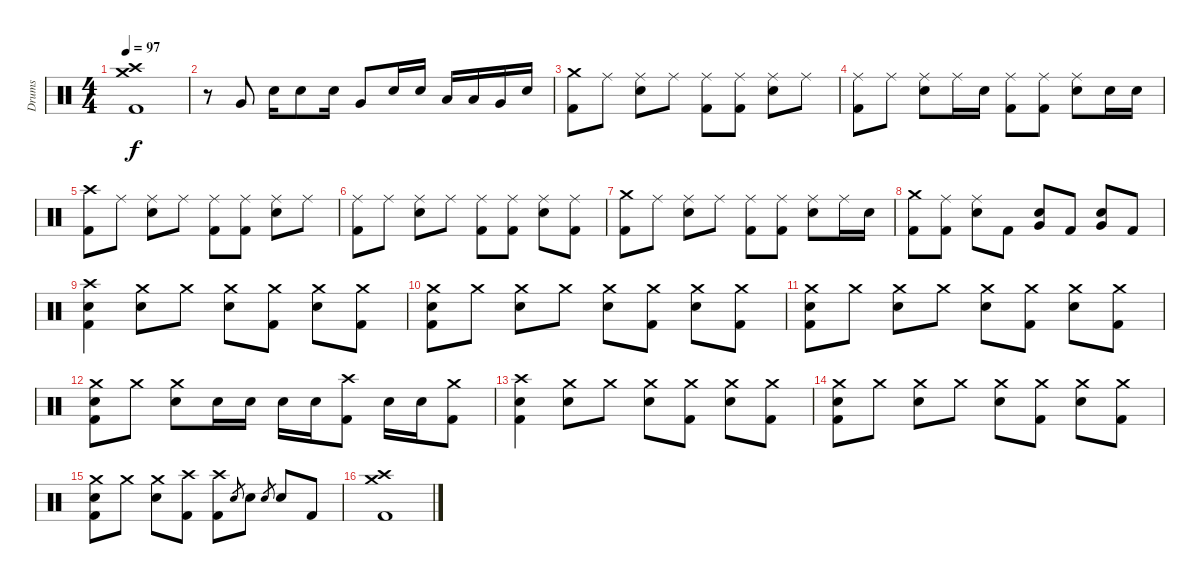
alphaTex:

\track ("Drums" "Drums") {instrument percussion}
\staff {score}
\articulation defaults
\ts (4 4)
\tempo 97
\clef neutral
\ks c
("Crash high (hit)" "Crash medium (hit)" "Kick (hit) 2").1{dy f} |
r.8 "Very Low Tom (hit)".8 "Snare (hit) 2".16 "Snare (hit) 2".8 "Snare (hit) 2".16 "Very Low Tom (hit)".8 "Snare (hit) 2".16 "Snare (hit) 2".16 "Low Tom (hit)".16 "Low Tom (hit)".16 "Very Low Tom (hit)".16 "Snare (hit) 2".16 |
("Crash medium (hit)" "Kick (hit) 2").8 "Ride (middle)".8 ("Ride (middle)" "Snare (hit) 2").8 "Ride (middle)".8 ("Ride (middle)" "Kick (hit) 2").8 ("Ride (middle)" "Kick (hit) 2").8 ("Ride (middle)" "Snare (hit) 2").8 "Ride (middle)".8 |
("Ride (middle)" "Kick (hit) 2").8 "Ride (middle)".8 ("Ride (middle)" "Snare (hit) 2").8 "Ride (middle)".16 "Snare (hit) 2".16 ("Ride (middle)" "Kick (hit) 2").8 ("Ride (middle)" "Kick (hit) 2").8 ("Ride (middle)" "Snare (hit) 2").8 "Snare (hit) 2".16 "Snare (hit) 2".16 |
("Crash high (hit)" "Kick (hit) 2").8 "Ride (middle)".8 ("Ride (middle)" "Snare (hit) 2").8 "Ride (middle)".8 ("Ride (middle)" "Kick (hit) 2").8 ("Ride (middle)" "Kick (hit) 2").8 ("Ride (middle)" "Snare (hit) 2").8 "Ride (middle)".8 |
("Ride (middle)" "Kick (hit) 2").8 "Ride (middle)".8 ("Ride (middle)" "Snare (hit) 2").8 "Ride (middle)".8 ("Ride (middle)" "Kick (hit) 2").8 ("Ride (middle)" "Kick (hit) 2").8 ("Ride (middle)" "Snare (hit) 2").8 ("Ride (middle)" "Kick (hit) 2").8 |
("Crash medium (hit)" "Kick (hit) 2").8 "Ride (middle)".8 ("Ride (middle)" "Snare (hit) 2").8 "Ride (middle)".8 ("Ride (middle)" "Kick (hit) 2").8 ("Ride (middle)" "Kick (hit) 2").8 ("Ride (middle)" "Snare (hit) 2").8 "Ride (middle)".16 "Snare (hit) 2".16 |
("Crash medium (hit)" "Kick (hit) 2").8 ("Ride (middle)" "Kick (hit) 2").8 ("Ride (middle)" "Snare (hit) 2").8 "Kick (hit) 2".8 ("Snare (hit) 2" "Very Low Tom (hit)").8 "Kick (hit) 2".8 ("Snare (hit) 2" "Very Low Tom (hit)").8 "Kick (hit) 2".8 |
("Crash high (hit)" "Snare (hit) 2" "Kick (hit) 2").4 ("Crash medium (hit)" "Snare (hit) 2").8 "Crash medium (hit)".8 ("Crash medium (hit)" "Snare (hit) 2").8 ("Crash medium (hit)" "Kick (hit) 2").8 ("Crash medium (hit)" "Snare (hit) 2").8 ("Crash medium (hit)" "Kick (hit) 2").8 |
("Crash medium (hit)" "Snare (hit) 2" "Kick (hit) 2").8 "Crash medium (hit)".8 ("Crash medium (hit)" "Snare (hit) 2").8 "Crash medium (hit)".8 ("Crash medium (hit)" "Snare (hit) 2").8 ("Crash medium (hit)" "Kick (hit) 2").8 ("Crash medium (hit)" "Snare (hit) 2").8 ("Crash medium (hit)" "Kick (hit) 2").8 |
("Crash medium (hit)" "Snare (hit) 2" "Kick (hit) 2").8 "Crash medium (hit)".8 ("Crash medium (hit)" "Snare (hit) 2").8 "Crash medium (hit)".8 ("Crash medium (hit)" "Snare (hit) 2").8 ("Crash medium (hit)" "Kick (hit) 2").8 ("Crash medium (hit)" "Snare (hit) 2").8 ("Crash medium (hit)" "Kick (hit) 2").8 |
("Crash medium (hit)" "Snare (hit) 2" "Kick (hit) 2").8 "Crash medium (hit)".8 ("Crash medium (hit)" "Snare (hit) 2").8 "Snare (hit) 2".16 "Snare (hit) 2".16 "Snare (hit) 2".16 "Snare (hit) 2".16 ("Crash high (hit)" "Kick (hit) 2").8 "Snare (hit) 2".16 "Snare (hit) 2".16 ("Crash medium (hit)" "Kick (hit) 2").8 |
("Crash high (hit)" "Snare (hit) 2" "Kick (hit) 2").4 ("Crash medium (hit)" "Snare (hit) 2").8 "Crash medium (hit)".8 ("Crash medium (hit)" "Snare (hit) 2").8 ("Crash medium (hit)" "Kick (hit) 2").8 ("Crash medium (hit)" "Snare (hit) 2").8 ("Crash medium (hit)" "Kick (hit) 2").8 |
("Crash medium (hit)" "Snare (hit) 2" "Kick (hit) 2").8 "Crash medium (hit)".8 ("Crash medium (hit)" "Snare (hit) 2").8 "Crash medium (hit)".8 ("Crash medium (hit)" "Snare (hit) 2").8 ("Crash medium (hit)" "Kick (hit) 2").8 ("Crash medium (hit)" "Snare (hit) 2").8 ("Crash medium (hit)" "Kick (hit) 2").8 |
("Crash medium (hit)" "Snare (hit) 2" "Kick (hit) 2").8 "Crash medium (hit)".8 ("Crash medium (hit)" "Snare (hit) 2").8 ("Crash high (hit)" "Kick (hit) 2").8 ("Crash high (hit)" "Kick (hit) 2").8 "Snare (hit) 2".8{gr} "Snare (hit) 2".8 "Snare (hit) 2".8{gr} "Snare (hit) 2".8 "Kick (hit) 2".8 |
("Crash high (hit)" "Crash medium (hit)" "Kick (hit) 2").1
